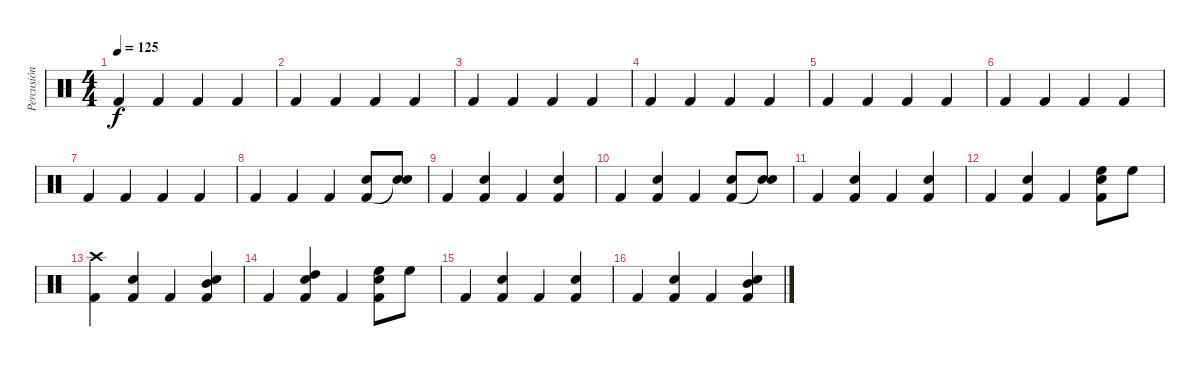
\track ("Percusión" "Percusión") {instrument percussion}
\staff {score}
\articulation defaults
\ts (4 4)
\tempo 125
\clef neutral
\ks c "Kick (hit) 2".4{dy f} "Kick (hit) 2".4 "Kick (hit) 2".4 "Kick (hit) 2".4
|
"Kick (hit) 2".4 "Kick (hit) 2".4 "Kick (hit) 2".4 "Kick (hit) 2".4 |
"Kick (hit) 2".4 "Kick (hit) 2".4 "Kick (hit) 2".4 "Kick (hit) 2".4 |
"Kick (hit) 2".4 "Kick (hit) 2".4 "Kick (hit) 2".4 "Kick (hit) 2".4 |
"Kick (hit) 2".4 "Kick (hit) 2".4 "Kick (hit) 2".4 "Kick (hit) 2".4 |
"Kick (hit) 2".4 "Kick (hit) 2".4 "Kick (hit) 2".4 "Kick (hit) 2".4 |
"Kick (hit) 2".4 "Kick (hit) 2".4 "Kick (hit) 2".4 "Kick (hit) 2".4 |
"Kick (hit) 2".4 "Kick (hit) 2".4 "Kick (hit) 2".4 ("Electric Snare (hit)" "Kick (hit) 2").8 ("Electric Snare (hit)" "Snare (hit)"{t}).8 |
"Kick (hit) 2".4 ("Electric Snare (hit)" "Kick (hit) 2").4 "Kick (hit) 2".4 ("Electric Snare (hit)" "Kick (hit) 2").4 |
"Kick (hit) 2".4 ("Snare (hit) 2" "Kick (hit) 2").4 "Kick (hit) 2".4 ("Electric Snare (hit)" "Kick (hit) 2").8 ("Electric Snare (hit)" "Snare (hit)"{t}).8 |
"Kick (hit) 2".4 ("Snare (hit) 2" "Kick (hit) 2").4 "Kick (hit) 2".4 ("Electric Snare (hit)" "Kick (hit) 2").4 |
"Kick (hit) 2".4 ("Snare (hit) 2" "Kick (hit) 2").4 "Kick (hit) 2".4 ("High Floor Tom (hit)" "Snare (hit) 2" "Kick (hit) 2").8 "High Floor Tom (hit)".8 |
("Crash high (hit)" "Kick (hit) 2").4 ("Electric Snare (hit)" "Kick (hit) 2").4 "Kick (hit) 2".4 ("Mid Tom (hit)" "Electric Snare (hit)" "Kick (hit) 2").4 |
"Kick (hit) 2".4 ("High Tom (hit)" "Electric Snare (hit)" "Kick (hit) 2").4 "Kick (hit) 2".4 ("High Floor Tom (hit)" "Electric Snare (hit)" "Kick (hit) 2").8 "High Floor Tom (hit)".8 |
"Kick (hit) 2".4 ("Electric Snare (hit)" "Kick (hit) 2").4 "Kick (hit) 2".4 ("Electric Snare (hit)" "Kick (hit) 2").4 |
"Kick (hit) 2".4 ("Electric Snare (hit)" "Kick (hit) 2").4 "Kick (hit) 2".4 ("Mid Tom (hit)" "Electric Snare (hit)" "Kick (hit) 2").4
